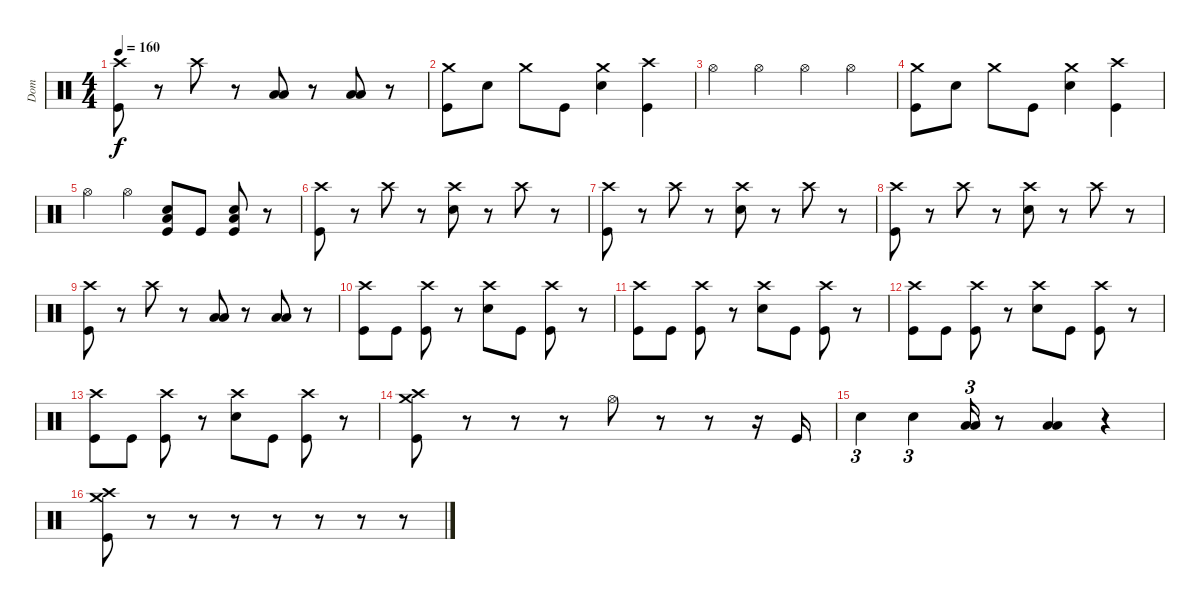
\track ("Dom" "Dom") {instrument percussion}
\staff {score}
\articulation defaults
\ts (4 4)
\tempo 160
\clef neutral
\ks c
("Crash high (hit)" "Kick (hit)").8{dy f} r.8 "Crash high (hit)".8 r.8 ("Low Floor Tom (hit)" "Low Tom (hit)").8 r.8 ("Low Floor Tom (hit)" "Low Tom (hit)").8 r.8 |
("Crash medium (hit)" "Kick (hit)").8 "Snare (hit) 2".8 "Crash medium (hit)".8 "Kick (hit)".8 ("Crash medium (hit)" "Snare (hit) 2").4 ("Crash high (hit)" "Kick (hit)").4 |
"Hi-Hat (open)".4 "Hi-Hat (open)".4 "Hi-Hat (open)".4 "Hi-Hat (open)".4 |
("Crash medium (hit)" "Kick (hit)").8 "Snare (hit) 2".8 "Crash medium (hit)".8 "Kick (hit)".8 ("Crash medium (hit)" "Snare (hit) 2").4 ("Crash high (hit)" "Kick (hit)").4 |
"Hi-Hat (open)".4 "Hi-Hat (open)".4 ("Low Floor Tom (hit)" "Snare (hit) 2" "Kick (hit)").8 "Kick (hit)".8 ("Low Floor Tom (hit)" "Snare (hit) 2" "Kick (hit)").8 r.8 |
("Crash high (hit)" "Kick (hit)").8 r.8 "Crash high (hit)".8 r.8 ("Crash high (hit)" "Snare (hit) 2").8 r.8 "Crash high (hit)".8 r.8 |
("Crash high (hit)" "Kick (hit)").8 r.8 "Crash high (hit)".8 r.8 ("Crash high (hit)" "Snare (hit) 2").8 r.8 "Crash high (hit)".8 r.8 |
("Crash high (hit)" "Kick (hit)").8 r.8 "Crash high (hit)".8 r.8 ("Crash high (hit)" "Snare (hit) 2").8 r.8 "Crash high (hit)".8 r.8 |
("Crash high (hit)" "Kick (hit)").8 r.8 "Crash high (hit)".8 r.8 ("Low Floor Tom (hit)" "Low Tom (hit)").8 r.8 ("Low Floor Tom (hit)" "Low Tom (hit)").8 r.8 |
("Crash high (hit)" "Kick (hit)").8 "Kick (hit)".8 ("Crash high (hit)" "Kick (hit)").8 r.8 ("Crash high (hit)" "Snare (hit) 2").8 "Kick (hit)".8 ("Crash high (hit)" "Kick (hit)").8 r.8 |
("Crash high (hit)" "Kick (hit)").8 "Kick (hit)".8 ("Crash high (hit)" "Kick (hit)").8 r.8 ("Crash high (hit)" "Snare (hit) 2").8 "Kick (hit)".8 ("Crash high (hit)" "Kick (hit)").8 r.8 |
("Crash high (hit)" "Kick (hit)").8 "Kick (hit)".8 ("Crash high (hit)" "Kick (hit)").8 r.8 ("Crash high (hit)" "Snare (hit) 2").8 "Kick (hit)".8 ("Crash high (hit)" "Kick (hit)").8 r.8 |
("Crash high (hit)" "Kick (hit)").8 "Kick (hit)".8 ("Crash high (hit)" "Kick (hit)").8 r.8 ("Crash high (hit)" "Snare (hit) 2").8 "Kick (hit)".8 ("Crash high (hit)" "Kick (hit)").8 r.8 |
("Crash medium (hit)" "Crash high (hit)" "Kick (hit)").8 r.8 r.8 r.8 "Hi-Hat (open)".8 r.8 r.8 r.16 "Kick (hit)".16 |
"Snare (hit) 2".4{tu (3 2)} "Snare (hit) 2".4{tu (3 2)} ("Low Tom (hit)" "Low Tom (hit)").16{tu (3 2)} r.8 ("Low Tom (hit)" "Low Floor Tom (hit)").4 r.4 |
("Crash high (hit)" "Crash medium (hit)" "Kick (hit)").8 r.8 r.8 r.8 r.8 r.8 r.8 r.8
